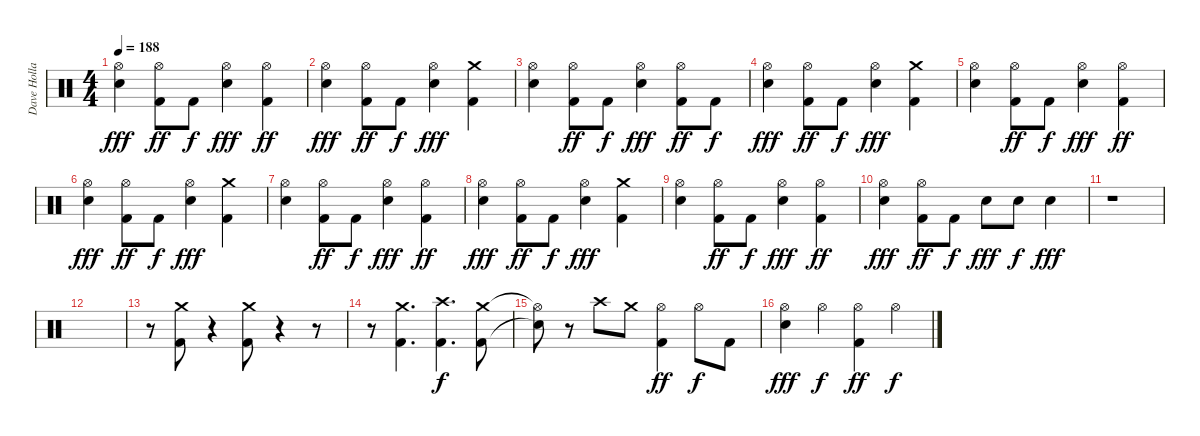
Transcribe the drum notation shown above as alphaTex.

\track ("Dave Holland" "Dave Holla") {instrument percussion}
\staff {score}
\articulation defaults
\ts (4 4)
\tempo 188
\clef neutral
\ks c
("Snare (hit) 2" "Hi-Hat (open)").4{dy fff} ("Kick (hit) 2" "Hi-Hat (open)").8{dy ff} "Kick (hit) 2".8{dy f} ("Snare (hit) 2" "Hi-Hat (open)").4{dy fff} ("Kick (hit) 2" "Hi-Hat (open)").4{dy ff} |
("Snare (hit) 2" "Hi-Hat (open)").4{dy fff} ("Kick (hit) 2" "Hi-Hat (open)").8{dy ff} "Kick (hit) 2".8{dy f} ("Snare (hit) 2" "Hi-Hat (open)").4{dy fff} ("Kick (hit) 2" "Crash medium (hit)").4 |
("Snare (hit) 2" "Hi-Hat (open)").4 ("Kick (hit) 2" "Hi-Hat (open)").8{dy ff} "Kick (hit) 2".8{dy f} ("Snare (hit) 2" "Hi-Hat (open)").4{dy fff} ("Kick (hit) 2" "Hi-Hat (open)").8{dy ff} "Kick (hit) 2".8{dy f} |
("Snare (hit) 2" "Hi-Hat (open)").4{dy fff} ("Kick (hit) 2" "Hi-Hat (open)").8{dy ff} "Kick (hit) 2".8{dy f} ("Snare (hit) 2" "Hi-Hat (open)").4{dy fff} ("Kick (hit) 2" "Crash medium (hit)").4 |
("Snare (hit) 2" "Hi-Hat (open)").4 ("Kick (hit) 2" "Hi-Hat (open)").8{dy ff} "Kick (hit) 2".8{dy f} ("Snare (hit) 2" "Hi-Hat (open)").4{dy fff} ("Kick (hit) 2" "Hi-Hat (open)").4{dy ff} |
("Snare (hit) 2" "Hi-Hat (open)").4{dy fff} ("Kick (hit) 2" "Hi-Hat (open)").8{dy ff} "Kick (hit) 2".8{dy f} ("Snare (hit) 2" "Hi-Hat (open)").4{dy fff} ("Kick (hit) 2" "Crash medium (hit)").4 |
("Snare (hit) 2" "Hi-Hat (open)").4 ("Kick (hit) 2" "Hi-Hat (open)").8{dy ff} "Kick (hit) 2".8{dy f} ("Snare (hit) 2" "Hi-Hat (open)").4{dy fff} ("Kick (hit) 2" "Hi-Hat (open)").4{dy ff} |
("Snare (hit) 2" "Hi-Hat (open)").4{dy fff} ("Kick (hit) 2" "Hi-Hat (open)").8{dy ff} "Kick (hit) 2".8{dy f} ("Snare (hit) 2" "Hi-Hat (open)").4{dy fff} ("Kick (hit) 2" "Crash medium (hit)").4 |
("Snare (hit) 2" "Hi-Hat (open)").4 ("Kick (hit) 2" "Hi-Hat (open)").8{dy ff} "Kick (hit) 2".8{dy f} ("Snare (hit) 2" "Hi-Hat (open)").4{dy fff} ("Kick (hit) 2" "Hi-Hat (open)").4{dy ff} |
("Snare (hit) 2" "Hi-Hat (open)").4{dy fff} ("Kick (hit) 2" "Hi-Hat (open)").8{dy ff} "Kick (hit) 2".8{dy f} "Snare (hit) 2".8{dy fff} "Snare (hit) 2".8{dy f} "Snare (hit) 2".4{dy fff} |
r.1 |
|
r.8 ("Kick (hit) 2" "Crash medium (hit)").8 r.4 ("Kick (hit) 2" "Crash medium (hit)").8 r.4 r.8 |
r.8 ("Kick (hit) 2" "Crash medium (hit)").4{d} ("Kick (hit) 2" "Crash high (hit)").4{d dy f} ("Kick (hit) 2" "Crash medium (hit)").8 |
("Snare (hit) 2"{t} "Hi-Hat (open)"{t}).8 r.8 "Crash high (hit)".8 "Crash medium (hit)".8 ("Kick (hit) 2" "Hi-Hat (open)").4{dy ff} "Hi-Hat (open)".8{dy f} "Kick (hit) 2".8 |
("Snare (hit) 2" "Hi-Hat (open)").4{dy fff} "Hi-Hat (open)".4{dy f} ("Kick (hit) 2" "Hi-Hat (open)").4{dy ff} "Hi-Hat (open)".4{dy f}
